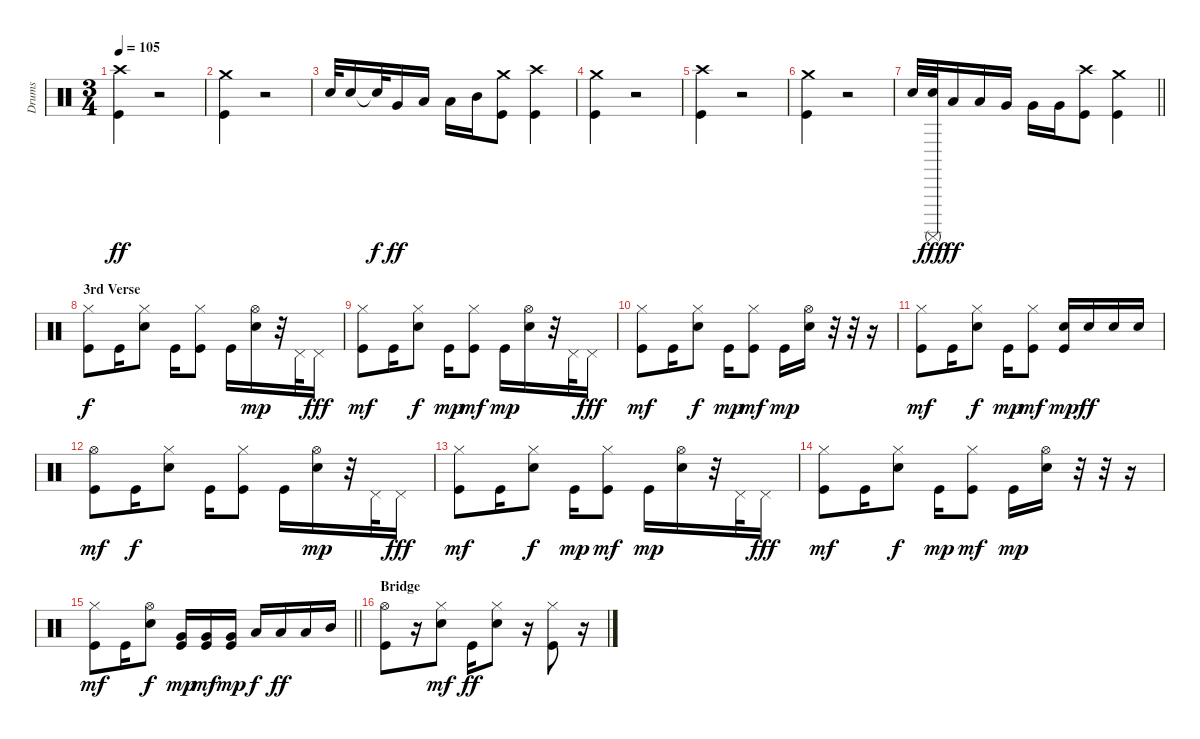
\track ("Drums" "Drums") {instrument percussion}
\staff {score}
\articulation defaults
\ts (3 4)
\tempo 105
\clef neutral
\ks c
("Crash high (hit)" "Kick (hit)").4{dy ff} r.2 |
("Crash medium (hit)" "Kick (hit)").4 r.2 |
"Snare (hit) 2".32 "Snare (hit) 2".16 "Snare (hit)"{t}.32{dy f} "Very Low Tom (hit)".16{dy ff} "Low Tom (hit)".16 "Low Tom (hit)".16 "Mid Tom (hit)".16 ("Crash medium (hit)" "Kick (hit)").8 ("Crash high (hit)" "Kick (hit)").4 |
("Crash medium (hit)" "Kick (hit)").4 r.2 |
("Crash high (hit)" "Kick (hit)").4 r.2 |
("Crash medium (hit)" "Kick (hit)").4 r.2 |
\barLineRight lightlight "Snare (hit) 2".32
("Surdo (mute)" "Snare (hit) 2").32{dy fff} "Low Tom (hit)".16{dy ff} "Low Tom (hit)".16 "Very Low Tom (hit)".16 "Very Low Tom (hit)".16 "Very Low Tom (hit)".16 ("Crash high (hit)" "Kick (hit)").8 ("Crash medium (hit)" "Kick (hit)").4 |
\section ("" "3rd Verse")
("Hi-Hat (closed)" "Kick (hit)").8{dy f} "Kick (hit)".16 ("Hi-Hat (closed)" "Snare (hit) 2").8 "Kick (hit)".16 ("Hi-Hat (closed)" "Kick (hit)").8 "Kick (hit)".16 ("Hi-Hat (open)" "Snare (hit) 2").16{dy mp} r.32 "Pedal Hi-Hat (hit)".32 "Pedal Hi-Hat (hit)".16{dy fff} |
("Hi-Hat (closed)" "Kick (hit)").8{dy mf} "Kick (hit)".16 ("Hi-Hat (closed)" "Snare (hit) 2").8{dy f} "Kick (hit)".16{dy mp} ("Hi-Hat (closed)" "Kick (hit)").8{dy mf} "Kick (hit)".16{dy mp} ("Hi-Hat (open)" "Snare (hit) 2").16 r.32 "Pedal Hi-Hat (hit)".32 "Pedal Hi-Hat (hit)".16{dy fff} |
("Hi-Hat (closed)" "Kick (hit)").8{dy mf} "Kick (hit)".16 ("Hi-Hat (closed)" "Snare (hit) 2").8{dy f} "Kick (hit)".16{dy mp} ("Hi-Hat (closed)" "Kick (hit)").8{dy mf} "Kick (hit)".16{dy mp} ("Hi-Hat (open)" "Snare (hit) 2").16 r.32 r.32 r.16 |
("Hi-Hat (closed)" "Kick (hit)").8{dy mf} "Kick (hit)".16 ("Hi-Hat (closed)" "Snare (hit) 2").8{dy f} "Kick (hit)".16{dy mp} ("Hi-Hat (closed)" "Kick (hit)").8{dy mf} ("Snare (hit) 2" "Kick (hit)").16{dy mp} "Snare (hit) 2".16{dy ff} "Snare (hit) 2".16 "Snare (hit) 2".16 |
("Hi-Hat (open)" "Kick (hit)").8{dy mf} "Kick (hit)".16{dy f} ("Hi-Hat (closed)" "Snare (hit) 2").8 "Kick (hit)".16 ("Hi-Hat (closed)" "Kick (hit)").8 "Kick (hit)".16 ("Hi-Hat (open)" "Snare (hit) 2").16{dy mp} r.32 "Pedal Hi-Hat (hit)".32 "Pedal Hi-Hat (hit)".16{dy fff} |
("Hi-Hat (closed)" "Kick (hit)").8{dy mf} "Kick (hit)".16 ("Hi-Hat (closed)" "Snare (hit) 2").8{dy f} "Kick (hit)".16{dy mp} ("Hi-Hat (closed)" "Kick (hit)").8{dy mf} "Kick (hit)".16{dy mp} ("Hi-Hat (open)" "Snare (hit) 2").16 r.32 "Pedal Hi-Hat (hit)".32 "Pedal Hi-Hat (hit)".16{dy fff} |
("Hi-Hat (closed)" "Kick (hit)").8{dy mf} "Kick (hit)".16 ("Hi-Hat (closed)" "Snare (hit) 2").8{dy f} "Kick (hit)".16{dy mp} ("Hi-Hat (closed)" "Kick (hit)").8{dy mf} "Kick (hit)".16{dy mp} ("Hi-Hat (open)" "Snare (hit) 2").16 r.32 r.32 r.16 |
\barLineRight lightlight
("Hi-Hat (closed)" "Kick (hit)").8{dy mf} "Kick (hit)".16 ("Hi-Hat (open)" "Snare (hit) 2").8{dy f} ("Very Low Tom (hit)" "Kick (hit)").16{dy mp} ("Very Low Tom (hit)" "Kick (hit)").16{dy mf} ("Very Low Tom (hit)" "Kick (hit)").16{dy mp} "Low Tom (hit)".16{dy f} "Low Tom (hit)".16{dy ff} "Low Tom (hit)".16 "Mid Tom (hit)".16 |
\section ("" "Bridge")
("Hi-Hat (open)" "Kick (hit)").8 r.16 ("Hi-Hat (closed)" "Snare (hit) 2").8{dy mf} "Kick (hit)".16{dy ff} ("Hi-Hat (closed)" "Snare (hit) 2").8 r.16 ("Hi-Hat (closed)" "Kick (hit)").8 r.16
